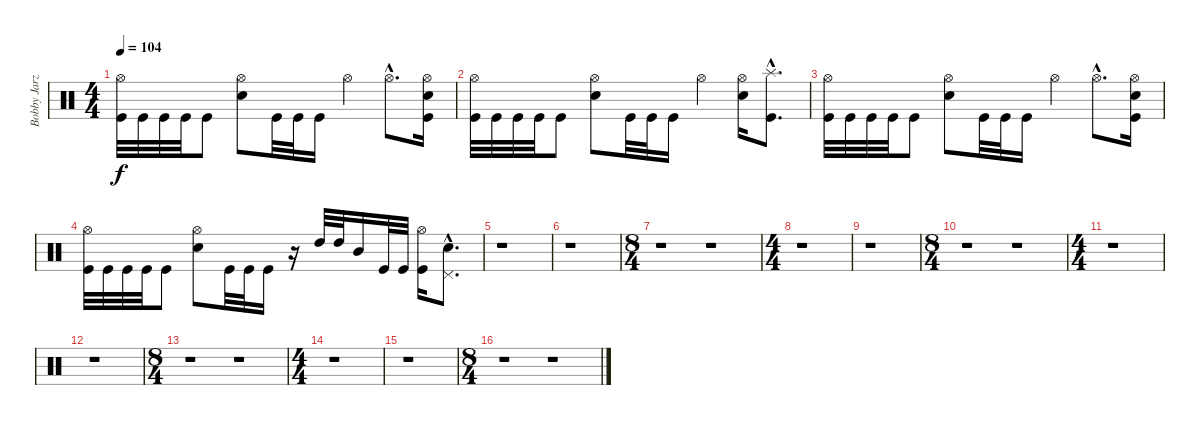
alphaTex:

\track ("Bobby Jarzombek" "Bobby Jarz") {instrument percussion}
\staff {score}
\articulation defaults
\ts (4 4)
\tempo 104
\clef neutral
\ks c
("Hi-Hat (open)" "Kick (hit)").32{dy f} "Kick (hit)".32 "Kick (hit)".32 "Kick (hit)".32 "Kick (hit)".8 ("Hi-Hat (open)" "Electric Snare (hit)").8 "Kick (hit)".32 "Kick (hit)".32 "Kick (hit)".16 "Hi-Hat (open)".4 "Hi-Hat (open)"{hac}.8{d} ("Hi-Hat (open)" "Electric Snare (hit)" "Kick (hit)").16 |
("Hi-Hat (open)" "Kick (hit)").32 "Kick (hit)".32 "Kick (hit)".32 "Kick (hit)".32 "Kick (hit)".8 ("Hi-Hat (open)" "Electric Snare (hit)").8 "Kick (hit)".32 "Kick (hit)".32 "Kick (hit)".16 "Hi-Hat (open)".4 ("Hi-Hat (open)" "Electric Snare (hit)").16 ("Splash (hit)"{hac} "Kick (hit)"{hac}).8{d} |
("Hi-Hat (open)" "Kick (hit)").32 "Kick (hit)".32 "Kick (hit)".32 "Kick (hit)".32 "Kick (hit)".8 ("Hi-Hat (open)" "Electric Snare (hit)").8 "Kick (hit)".32 "Kick (hit)".32 "Kick (hit)".16 "Hi-Hat (open)".4 "Hi-Hat (open)"{hac}.8{d} ("Hi-Hat (open)" "Electric Snare (hit)" "Kick (hit)").16 |
("Hi-Hat (open)" "Kick (hit)").32 "Kick (hit)".32 "Kick (hit)".32 "Kick (hit)".32 "Kick (hit)".8 ("Hi-Hat (open)" "Electric Snare (hit)").8 "Kick (hit)".32 "Kick (hit)".32 "Kick (hit)".16 r.16 "High Tom (hit)".32 "High Tom (hit)".32 "Mid Tom (hit)".16 "Kick (hit)".32 "Kick (hit)".32 ("Hi-Hat (open)" "Kick (hit)").16 ("Electric Snare (hit)"{hac} "Pedal Hi-Hat (hit)"{hac}).8{d} |
r.1 |
r.1 |
\ts (8 4)
r.1 r.1 |
\ts (4 4)
r.1 |
r.1 |
\ts (8 4)
r.1 r.1 |
\ts (4 4)
r.1 |
r.1 |
\ts (8 4)
r.1 r.1 |
\ts (4 4)
r.1 |
r.1 |
\ts (8 4)
r.1 r.1
